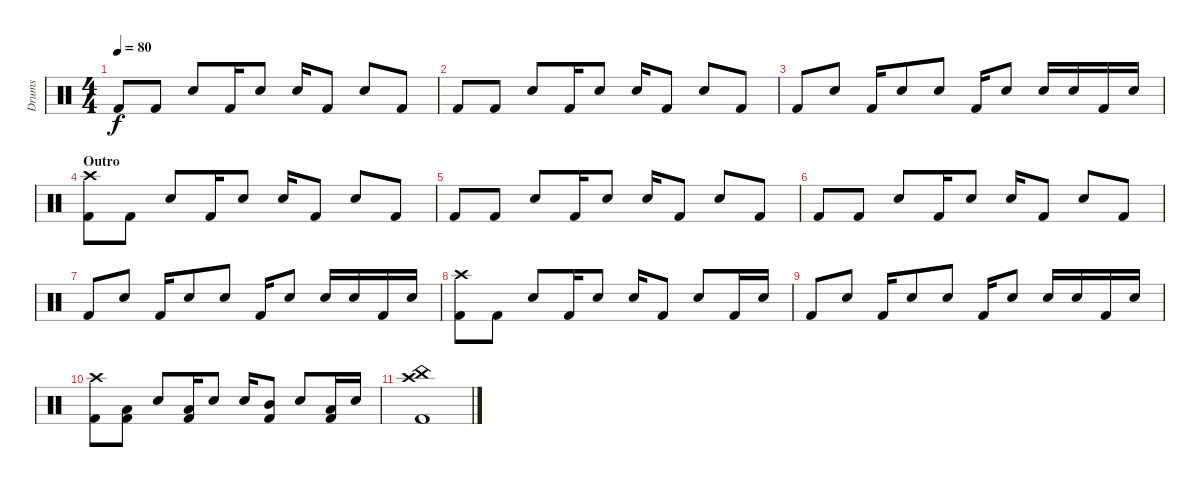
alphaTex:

\track ("Drums" "Drums") {instrument percussion}
\staff {score}
\articulation defaults
\ts (4 4)
\tempo 80
\clef neutral
\ks c "Kick (hit) 2".8{dy f} "Kick (hit) 2".8 "Electric Snare (hit)".8 "Kick (hit) 2".16 "Electric Snare (hit)".8 "Electric Snare (hit)".16 "Kick (hit) 2".8 "Electric Snare (hit)".8 "Kick (hit) 2".8
|
"Kick (hit) 2".8 "Kick (hit) 2".8 "Electric Snare (hit)".8 "Kick (hit) 2".16 "Electric Snare (hit)".8 "Electric Snare (hit)".16 "Kick (hit) 2".8 "Electric Snare (hit)".8 "Kick (hit) 2".8 |
"Kick (hit) 2".8 "Electric Snare (hit)".8 "Kick (hit) 2".16 "Electric Snare (hit)".8 "Electric Snare (hit)".8 "Kick (hit) 2".16 "Electric Snare (hit)".8 "Electric Snare (hit)".16 "Electric Snare (hit)".16 "Kick (hit) 2".16 "Electric Snare (hit)".16 |
\section ("" "Outro")
("Crash high (hit)" "Kick (hit) 2").8 "Kick (hit) 2".8 "Electric Snare (hit)".8 "Kick (hit) 2".16 "Electric Snare (hit)".8 "Electric Snare (hit)".16 "Kick (hit) 2".8 "Electric Snare (hit)".8 "Kick (hit) 2".8 |
"Kick (hit) 2".8 "Kick (hit) 2".8 "Electric Snare (hit)".8 "Kick (hit) 2".16 "Electric Snare (hit)".8 "Electric Snare (hit)".16 "Kick (hit) 2".8 "Electric Snare (hit)".8 "Kick (hit) 2".8 |
"Kick (hit) 2".8 "Kick (hit) 2".8 "Electric Snare (hit)".8 "Kick (hit) 2".16 "Electric Snare (hit)".8 "Electric Snare (hit)".16 "Kick (hit) 2".8 "Electric Snare (hit)".8 "Kick (hit) 2".8 |
"Kick (hit) 2".8 "Electric Snare (hit)".8 "Kick (hit) 2".16 "Electric Snare (hit)".8 "Electric Snare (hit)".8 "Kick (hit) 2".16 "Electric Snare (hit)".8 "Electric Snare (hit)".16 "Electric Snare (hit)".16 "Kick (hit) 2".16 "Electric Snare (hit)".16 |
("Crash high (hit)" "Kick (hit) 2").8 "Kick (hit) 2".8 "Electric Snare (hit)".8 "Kick (hit) 2".16 "Electric Snare (hit)".8 "Electric Snare (hit)".16 "Kick (hit) 2".8 "Electric Snare (hit)".8 "Kick (hit) 2".16 "Electric Snare (hit)".16 |
"Kick (hit) 2".8 "Electric Snare (hit)".8 "Kick (hit) 2".16 "Electric Snare (hit)".8 "Electric Snare (hit)".8 "Kick (hit) 2".16 "Electric Snare (hit)".8 "Electric Snare (hit)".16 "Electric Snare (hit)".16 "Kick (hit) 2".16 "Electric Snare (hit)".16 |
("Crash high (hit)" "Kick (hit) 2").8 ("Low Floor Tom (hit)" "Kick (hit) 2").8 "Electric Snare (hit)".8 ("Low Tom (hit)" "Kick (hit) 2").16 "Electric Snare (hit)".8 "Electric Snare (hit)".16 ("Mid Tom (hit)" "Kick (hit) 2").8 "Electric Snare (hit)".8 ("Low Floor Tom (hit)" "Kick (hit) 2").16 "Electric Snare (hit)".16 |
("China (hit)" "Crash high (hit)" "Kick (hit) 2").1
